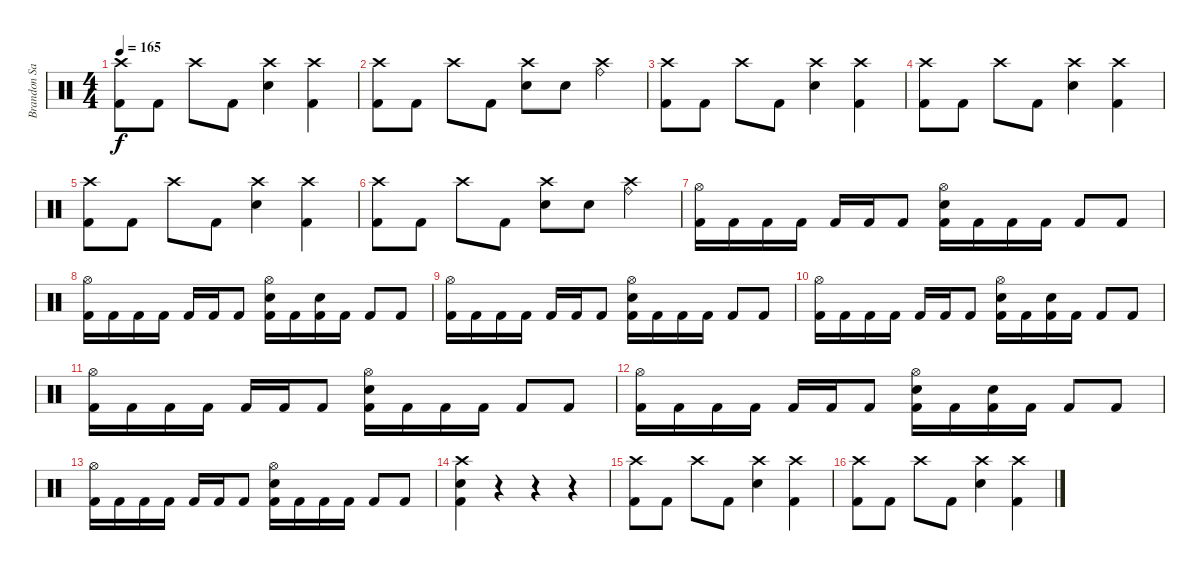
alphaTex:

\track ("Brandon Saller" "Brandon Sa") {instrument percussion}
\staff {score}
\articulation defaults
\ts (4 4)
\tempo 165
\clef neutral
\ks c
("Crash high (hit)" "Kick (hit) 2").8{dy f} "Kick (hit) 2".8 "Crash high (hit)".8 "Kick (hit) 2".8 ("Crash high (hit)" "Electric Snare (hit)").4 ("Crash high (hit)" "Kick (hit) 2").4 |
("Crash high (hit)" "Kick (hit) 2").8 "Kick (hit) 2".8 "Crash high (hit)".8 "Kick (hit) 2".8 ("Crash high (hit)" "Electric Snare (hit)").8 "Electric Snare (hit)".8 ("Crash high (hit)" "Ride (bell)").4 |
("Crash high (hit)" "Kick (hit) 2").8 "Kick (hit) 2".8 "Crash high (hit)".8 "Kick (hit) 2".8 ("Crash high (hit)" "Electric Snare (hit)").4 ("Crash high (hit)" "Kick (hit) 2").4 |
("Crash high (hit)" "Kick (hit) 2").8 "Kick (hit) 2".8 "Crash high (hit)".8 "Kick (hit) 2".8 ("Crash high (hit)" "Electric Snare (hit)").4 ("Crash high (hit)" "Kick (hit) 2").4 |
("Crash high (hit)" "Kick (hit) 2").8 "Kick (hit) 2".8 "Crash high (hit)".8 "Kick (hit) 2".8 ("Crash high (hit)" "Electric Snare (hit)").4 ("Crash high (hit)" "Kick (hit) 2").4 |
("Crash high (hit)" "Kick (hit) 2").8 "Kick (hit) 2".8 "Crash high (hit)".8 "Kick (hit) 2".8 ("Crash high (hit)" "Electric Snare (hit)").8 "Electric Snare (hit)".8 ("Crash high (hit)" "Ride (bell)").4 |
("Hi-Hat (open)" "Kick (hit) 2").16 "Kick (hit) 2".16 "Kick (hit) 2".16 "Kick (hit) 2".16 "Kick (hit) 2".16 "Kick (hit) 2".16 "Kick (hit) 2".8 ("Hi-Hat (open)" "Electric Snare (hit)" "Kick (hit) 2").16 "Kick (hit) 2".16 "Kick (hit) 2".16 "Kick (hit) 2".16 "Kick (hit) 2".8 "Kick (hit) 2".8 |
("Hi-Hat (open)" "Kick (hit) 2").16 "Kick (hit) 2".16 "Kick (hit) 2".16 "Kick (hit) 2".16 "Kick (hit) 2".16 "Kick (hit) 2".16 "Kick (hit) 2".8 ("Hi-Hat (open)" "Electric Snare (hit)" "Kick (hit) 2").16 "Kick (hit) 2".16 ("Electric Snare (hit)" "Kick (hit) 2").16 "Kick (hit) 2".16 "Kick (hit) 2".8 "Kick (hit) 2".8 |
("Hi-Hat (open)" "Kick (hit) 2").16 "Kick (hit) 2".16 "Kick (hit) 2".16 "Kick (hit) 2".16 "Kick (hit) 2".16 "Kick (hit) 2".16 "Kick (hit) 2".8 ("Hi-Hat (open)" "Electric Snare (hit)" "Kick (hit) 2").16 "Kick (hit) 2".16 "Kick (hit) 2".16 "Kick (hit) 2".16 "Kick (hit) 2".8 "Kick (hit) 2".8 |
("Hi-Hat (open)" "Kick (hit) 2").16 "Kick (hit) 2".16 "Kick (hit) 2".16 "Kick (hit) 2".16 "Kick (hit) 2".16 "Kick (hit) 2".16 "Kick (hit) 2".8 ("Hi-Hat (open)" "Electric Snare (hit)" "Kick (hit) 2").16 "Kick (hit) 2".16 ("Electric Snare (hit)" "Kick (hit) 2").16 "Kick (hit) 2".16 "Kick (hit) 2".8 "Kick (hit) 2".8 |
("Hi-Hat (open)" "Kick (hit) 2").16 "Kick (hit) 2".16 "Kick (hit) 2".16 "Kick (hit) 2".16 "Kick (hit) 2".16 "Kick (hit) 2".16 "Kick (hit) 2".8 ("Hi-Hat (open)" "Electric Snare (hit)" "Kick (hit) 2").16 "Kick (hit) 2".16 "Kick (hit) 2".16 "Kick (hit) 2".16 "Kick (hit) 2".8 "Kick (hit) 2".8 |
("Hi-Hat (open)" "Kick (hit) 2").16 "Kick (hit) 2".16 "Kick (hit) 2".16 "Kick (hit) 2".16 "Kick (hit) 2".16 "Kick (hit) 2".16 "Kick (hit) 2".8 ("Hi-Hat (open)" "Electric Snare (hit)" "Kick (hit) 2").16 "Kick (hit) 2".16 ("Electric Snare (hit)" "Kick (hit) 2").16 "Kick (hit) 2".16 "Kick (hit) 2".8 "Kick (hit) 2".8 |
("Hi-Hat (open)" "Kick (hit) 2").16 "Kick (hit) 2".16 "Kick (hit) 2".16 "Kick (hit) 2".16 "Kick (hit) 2".16 "Kick (hit) 2".16 "Kick (hit) 2".8 ("Hi-Hat (open)" "Electric Snare (hit)" "Kick (hit) 2").16 "Kick (hit) 2".16 "Kick (hit) 2".16 "Kick (hit) 2".16 "Kick (hit) 2".8 "Kick (hit) 2".8 |
("Crash high (hit)" "Electric Snare (hit)" "Kick (hit) 2").4 r.4 r.4 r.4 |
("Crash high (hit)" "Kick (hit) 2").8 "Kick (hit) 2".8 "Crash high (hit)".8 "Kick (hit) 2".8 ("Crash high (hit)" "Electric Snare (hit)").4 ("Crash high (hit)" "Kick (hit) 2").4 |
("Crash high (hit)" "Kick (hit) 2").8 "Kick (hit) 2".8 "Crash high (hit)".8 "Kick (hit) 2".8 ("Crash high (hit)" "Electric Snare (hit)").4 ("Crash high (hit)" "Kick (hit) 2").4
